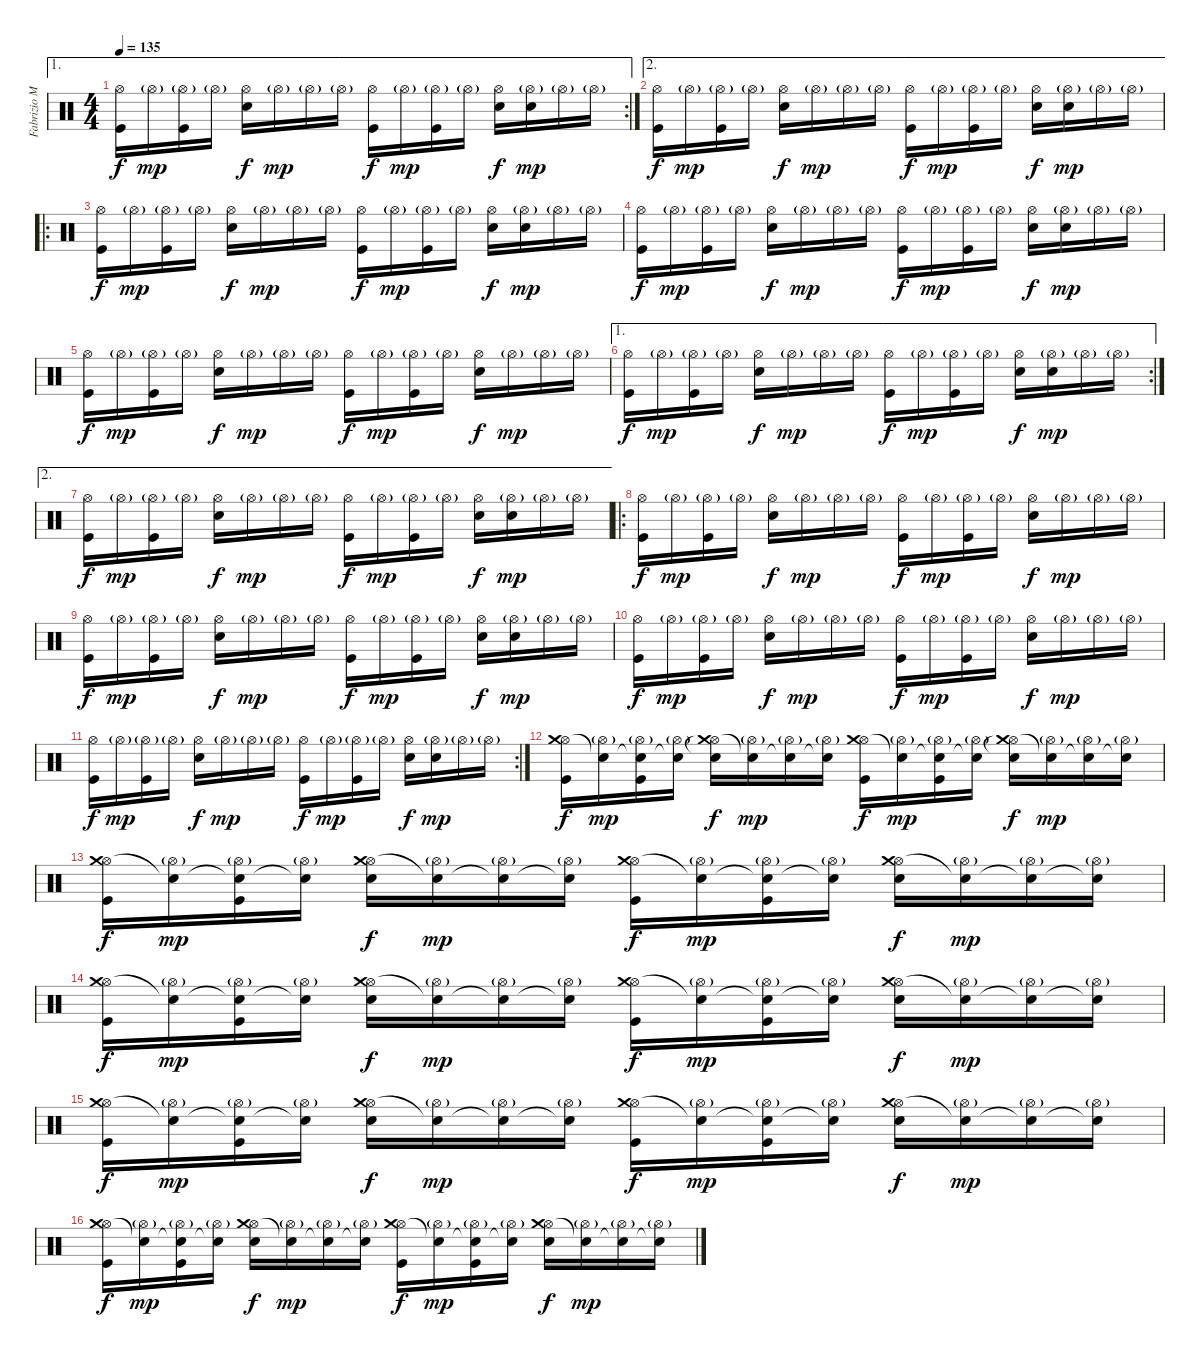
\track ("Fabrizio Moretti" "Fabrizio M") {instrument percussion}
\staff {score}
\articulation defaults
\ae 1
\rc 2
\ts (4 4)
\tempo 135
\clef neutral
\ks c
("Hi-Hat (open)" "Kick (hit)").16{dy f} "Hi-Hat (open)"{g}.16{dy mp} ("Hi-Hat (open)"{g} "Kick (hit)").16 "Hi-Hat (open)"{g}.16 ("Hi-Hat (open)" "Electric Snare (hit)").16{dy f} "Hi-Hat (open)"{g}.16{dy mp} "Hi-Hat (open)"{g}.16 "Hi-Hat (open)"{g}.16 ("Hi-Hat (open)" "Kick (hit)").16{dy f} "Hi-Hat (open)"{g}.16{dy mp} ("Hi-Hat (open)"{g} "Kick (hit)").16 "Hi-Hat (open)"{g}.16 ("Hi-Hat (open)" "Electric Snare (hit)").16{dy f} ("Hi-Hat (open)"{g} "Electric Snare (hit)").16{dy mp} "Hi-Hat (open)"{g}.16 "Hi-Hat (open)"{g}.16 |
\ae 2
("Hi-Hat (open)" "Kick (hit)").16{dy f} "Hi-Hat (open)"{g}.16{dy mp} ("Hi-Hat (open)"{g} "Kick (hit)").16 "Hi-Hat (open)"{g}.16 ("Hi-Hat (open)" "Electric Snare (hit)").16{dy f} "Hi-Hat (open)"{g}.16{dy mp} "Hi-Hat (open)"{g}.16 "Hi-Hat (open)"{g}.16 ("Hi-Hat (open)" "Kick (hit)").16{dy f} "Hi-Hat (open)"{g}.16{dy mp} ("Hi-Hat (open)"{g} "Kick (hit)").16 "Hi-Hat (open)"{g}.16 ("Hi-Hat (open)" "Electric Snare (hit)").16{dy f} ("Hi-Hat (open)"{g} "Electric Snare (hit)").16{dy mp} "Hi-Hat (open)"{g}.16 "Hi-Hat (open)"{g}.16 |
\ro
("Hi-Hat (open)" "Kick (hit)").16{dy f} "Hi-Hat (open)"{g}.16{dy mp} ("Hi-Hat (open)"{g} "Kick (hit)").16 "Hi-Hat (open)"{g}.16 ("Hi-Hat (open)" "Electric Snare (hit)").16{dy f} "Hi-Hat (open)"{g}.16{dy mp} "Hi-Hat (open)"{g}.16 "Hi-Hat (open)"{g}.16 ("Hi-Hat (open)" "Kick (hit)").16{dy f} "Hi-Hat (open)"{g}.16{dy mp} ("Hi-Hat (open)"{g} "Kick (hit)").16 "Hi-Hat (open)"{g}.16 ("Hi-Hat (open)" "Electric Snare (hit)").16{dy f} ("Hi-Hat (open)"{g} "Electric Snare (hit)").16{dy mp} "Hi-Hat (open)"{g}.16 "Hi-Hat (open)"{g}.16 |
("Hi-Hat (open)" "Kick (hit)").16{dy f} "Hi-Hat (open)"{g}.16{dy mp} ("Hi-Hat (open)"{g} "Kick (hit)").16 "Hi-Hat (open)"{g}.16 ("Hi-Hat (open)" "Electric Snare (hit)").16{dy f} "Hi-Hat (open)"{g}.16{dy mp} "Hi-Hat (open)"{g}.16 "Hi-Hat (open)"{g}.16 ("Hi-Hat (open)" "Kick (hit)").16{dy f} "Hi-Hat (open)"{g}.16{dy mp} ("Hi-Hat (open)"{g} "Kick (hit)").16 "Hi-Hat (open)"{g}.16 ("Hi-Hat (open)" "Electric Snare (hit)").16{dy f} ("Hi-Hat (open)"{g} "Electric Snare (hit)").16{dy mp} "Hi-Hat (open)"{g}.16 "Hi-Hat (open)"{g}.16 |
("Hi-Hat (open)" "Kick (hit)").16{dy f} "Hi-Hat (open)"{g}.16{dy mp} ("Hi-Hat (open)"{g} "Kick (hit)").16 "Hi-Hat (open)"{g}.16 ("Hi-Hat (open)" "Electric Snare (hit)").16{dy f} "Hi-Hat (open)"{g}.16{dy mp} "Hi-Hat (open)"{g}.16 "Hi-Hat (open)"{g}.16 ("Hi-Hat (open)" "Kick (hit)").16{dy f} "Hi-Hat (open)"{g}.16{dy mp} ("Hi-Hat (open)"{g} "Kick (hit)").16 "Hi-Hat (open)"{g}.16 ("Hi-Hat (open)" "Electric Snare (hit)").16{dy f} "Hi-Hat (open)"{g}.16{dy mp} "Hi-Hat (open)"{g}.16 "Hi-Hat (open)"{g}.16 |
\ae 1
\rc 2
("Hi-Hat (open)" "Kick (hit)").16{dy f} "Hi-Hat (open)"{g}.16{dy mp} ("Hi-Hat (open)"{g} "Kick (hit)").16 "Hi-Hat (open)"{g}.16 ("Hi-Hat (open)" "Electric Snare (hit)").16{dy f} "Hi-Hat (open)"{g}.16{dy mp} "Hi-Hat (open)"{g}.16 "Hi-Hat (open)"{g}.16 ("Hi-Hat (open)" "Kick (hit)").16{dy f} "Hi-Hat (open)"{g}.16{dy mp} ("Hi-Hat (open)"{g} "Kick (hit)").16 "Hi-Hat (open)"{g}.16 ("Hi-Hat (open)" "Electric Snare (hit)").16{dy f} ("Hi-Hat (open)"{g} "Electric Snare (hit)").16{dy mp} "Hi-Hat (open)"{g}.16 "Hi-Hat (open)"{g}.16 |
\ae 2
("Hi-Hat (open)" "Kick (hit)").16{dy f} "Hi-Hat (open)"{g}.16{dy mp} ("Hi-Hat (open)"{g} "Kick (hit)").16 "Hi-Hat (open)"{g}.16 ("Hi-Hat (open)" "Electric Snare (hit)").16{dy f} "Hi-Hat (open)"{g}.16{dy mp} "Hi-Hat (open)"{g}.16 "Hi-Hat (open)"{g}.16 ("Hi-Hat (open)" "Kick (hit)").16{dy f} "Hi-Hat (open)"{g}.16{dy mp} ("Hi-Hat (open)"{g} "Kick (hit)").16 "Hi-Hat (open)"{g}.16 ("Hi-Hat (open)" "Electric Snare (hit)").16{dy f} ("Hi-Hat (open)"{g} "Electric Snare (hit)").16{dy mp} "Hi-Hat (open)"{g}.16 "Hi-Hat (open)"{g}.16 |
\ro
("Hi-Hat (open)" "Kick (hit)").16{dy f} "Hi-Hat (open)"{g}.16{dy mp} ("Hi-Hat (open)"{g} "Kick (hit)").16 "Hi-Hat (open)"{g}.16 ("Hi-Hat (open)" "Electric Snare (hit)").16{dy f} "Hi-Hat (open)"{g}.16{dy mp} "Hi-Hat (open)"{g}.16 "Hi-Hat (open)"{g}.16 ("Hi-Hat (open)" "Kick (hit)").16{dy f} "Hi-Hat (open)"{g}.16{dy mp} ("Hi-Hat (open)"{g} "Kick (hit)").16 "Hi-Hat (open)"{g}.16 ("Hi-Hat (open)" "Electric Snare (hit)").16{dy f} "Hi-Hat (open)"{g}.16{dy mp} "Hi-Hat (open)"{g}.16 "Hi-Hat (open)"{g}.16 |
("Hi-Hat (open)" "Kick (hit)").16{dy f} "Hi-Hat (open)"{g}.16{dy mp} ("Hi-Hat (open)"{g} "Kick (hit)").16 "Hi-Hat (open)"{g}.16 ("Hi-Hat (open)" "Electric Snare (hit)").16{dy f} "Hi-Hat (open)"{g}.16{dy mp} "Hi-Hat (open)"{g}.16 "Hi-Hat (open)"{g}.16 ("Hi-Hat (open)" "Kick (hit)").16{dy f} "Hi-Hat (open)"{g}.16{dy mp} ("Hi-Hat (open)"{g} "Kick (hit)").16 "Hi-Hat (open)"{g}.16 ("Hi-Hat (open)" "Electric Snare (hit)").16{dy f} ("Hi-Hat (open)"{g} "Electric Snare (hit)").16{dy mp} "Hi-Hat (open)"{g}.16 "Hi-Hat (open)"{g}.16 |
("Hi-Hat (open)" "Kick (hit)").16{dy f} "Hi-Hat (open)"{g}.16{dy mp} ("Hi-Hat (open)"{g} "Kick (hit)").16 "Hi-Hat (open)"{g}.16 ("Hi-Hat (open)" "Electric Snare (hit)").16{dy f} "Hi-Hat (open)"{g}.16{dy mp} "Hi-Hat (open)"{g}.16 "Hi-Hat (open)"{g}.16 ("Hi-Hat (open)" "Kick (hit)").16{dy f} "Hi-Hat (open)"{g}.16{dy mp} ("Hi-Hat (open)"{g} "Kick (hit)").16 "Hi-Hat (open)"{g}.16 ("Hi-Hat (open)" "Electric Snare (hit)").16{dy f} "Hi-Hat (open)"{g}.16{dy mp} "Hi-Hat (open)"{g}.16 "Hi-Hat (open)"{g}.16 |
\rc 2
("Hi-Hat (open)" "Kick (hit)").16{dy f} "Hi-Hat (open)"{g}.16{dy mp} ("Hi-Hat (open)"{g} "Kick (hit)").16 "Hi-Hat (open)"{g}.16 ("Hi-Hat (open)" "Electric Snare (hit)").16{dy f} "Hi-Hat (open)"{g}.16{dy mp} "Hi-Hat (open)"{g}.16 "Hi-Hat (open)"{g}.16 ("Hi-Hat (open)" "Kick (hit)").16{dy f} "Hi-Hat (open)"{g}.16{dy mp} ("Hi-Hat (open)"{g} "Kick (hit)").16 "Hi-Hat (open)"{g}.16 ("Hi-Hat (open)" "Electric Snare (hit)").16{dy f} ("Hi-Hat (open)"{g} "Electric Snare (hit)").16{dy mp} "Hi-Hat (open)"{g}.16 "Hi-Hat (open)"{g}.16 |
("Hi-Hat (open)" "Crash medium (hit)" "Kick (hit)").16{dy f} ("Hi-Hat (open)"{g} "Snare (hit)"{t}).16{dy mp} ("Hi-Hat (open)"{g} "Snare (hit)"{t} "Kick (hit)").16 ("Hi-Hat (open)"{g} "Snare (hit)"{t}).16 ("Hi-Hat (open)" "Crash medium (hit)"{t} "Electric Snare (hit)").16{dy f} ("Hi-Hat (open)"{g} "Snare (hit)"{t}).16{dy mp} ("Hi-Hat (open)"{g} "Snare (hit)"{t}).16 ("Hi-Hat (open)"{g} "Snare (hit)"{t}).16 ("Hi-Hat (open)" "Crash medium (hit)" "Kick (hit)").16{dy f} ("Hi-Hat (open)"{g} "Snare (hit)"{t}).16{dy mp} ("Hi-Hat (open)"{g} "Snare (hit)"{t} "Kick (hit)").16 ("Hi-Hat (open)"{g} "Snare (hit)"{t}).16 ("Hi-Hat (open)" "Crash medium (hit)"{t} "Electric Snare (hit)").16{dy f} ("Hi-Hat (open)"{g} "Snare (hit)"{t}).16{dy mp} ("Hi-Hat (open)"{g} "Snare (hit)"{t}).16 ("Hi-Hat (open)"{g} "Snare (hit)"{t}).16 |
("Hi-Hat (open)" "Crash medium (hit)" "Kick (hit)").16{dy f} ("Hi-Hat (open)"{g} "Snare (hit)"{t}).16{dy mp} ("Hi-Hat (open)"{g} "Snare (hit)"{t} "Kick (hit)").16 ("Hi-Hat (open)"{g} "Snare (hit)"{t}).16 ("Hi-Hat (open)" "Crash medium (hit)" "Electric Snare (hit)").16{dy f} ("Hi-Hat (open)"{g} "Snare (hit)"{t}).16{dy mp} ("Hi-Hat (open)"{g} "Snare (hit)"{t}).16 ("Hi-Hat (open)"{g} "Snare (hit)"{t}).16 ("Hi-Hat (open)" "Crash medium (hit)" "Kick (hit)").16{dy f} ("Hi-Hat (open)"{g} "Snare (hit)"{t}).16{dy mp} ("Hi-Hat (open)"{g} "Snare (hit)"{t} "Kick (hit)").16 ("Hi-Hat (open)"{g} "Snare (hit)"{t}).16 ("Hi-Hat (open)" "Crash medium (hit)" "Electric Snare (hit)").16{dy f} ("Hi-Hat (open)"{g} "Snare (hit)"{t}).16{dy mp} ("Hi-Hat (open)"{g} "Snare (hit)"{t}).16 ("Hi-Hat (open)"{g} "Snare (hit)"{t}).16 |
("Hi-Hat (open)" "Crash medium (hit)" "Kick (hit)").16{dy f} ("Hi-Hat (open)"{g} "Snare (hit)"{t}).16{dy mp} ("Hi-Hat (open)"{g} "Snare (hit)"{t} "Kick (hit)").16 ("Hi-Hat (open)"{g} "Snare (hit)"{t}).16 ("Hi-Hat (open)" "Crash medium (hit)" "Electric Snare (hit)").16{dy f} ("Hi-Hat (open)"{g} "Snare (hit)"{t}).16{dy mp} ("Hi-Hat (open)"{g} "Snare (hit)"{t}).16 ("Hi-Hat (open)"{g} "Snare (hit)"{t}).16 ("Hi-Hat (open)" "Crash medium (hit)" "Kick (hit)").16{dy f} ("Hi-Hat (open)"{g} "Snare (hit)"{t}).16{dy mp} ("Hi-Hat (open)"{g} "Snare (hit)"{t} "Kick (hit)").16 ("Hi-Hat (open)"{g} "Snare (hit)"{t}).16 ("Hi-Hat (open)" "Crash medium (hit)" "Electric Snare (hit)").16{dy f} ("Hi-Hat (open)"{g} "Snare (hit)"{t}).16{dy mp} ("Hi-Hat (open)"{g} "Snare (hit)"{t}).16 ("Hi-Hat (open)"{g} "Snare (hit)"{t}).16 |
("Hi-Hat (open)" "Crash medium (hit)" "Kick (hit)").16{dy f} ("Hi-Hat (open)"{g} "Snare (hit)"{t}).16{dy mp} ("Hi-Hat (open)"{g} "Snare (hit)"{t} "Kick (hit)").16 ("Hi-Hat (open)"{g} "Snare (hit)"{t}).16 ("Hi-Hat (open)" "Crash medium (hit)" "Electric Snare (hit)").16{dy f} ("Hi-Hat (open)"{g} "Snare (hit)"{t}).16{dy mp} ("Hi-Hat (open)"{g} "Snare (hit)"{t}).16 ("Hi-Hat (open)"{g} "Snare (hit)"{t}).16 ("Hi-Hat (open)" "Crash medium (hit)" "Kick (hit)").16{dy f} ("Hi-Hat (open)"{g} "Snare (hit)"{t}).16{dy mp} ("Hi-Hat (open)"{g} "Snare (hit)"{t} "Kick (hit)").16 ("Hi-Hat (open)"{g} "Snare (hit)"{t}).16 ("Hi-Hat (open)" "Crash medium (hit)" "Electric Snare (hit)").16{dy f} ("Hi-Hat (open)"{g} "Snare (hit)"{t}).16{dy mp} ("Hi-Hat (open)"{g} "Snare (hit)"{t}).16 ("Hi-Hat (open)"{g} "Snare (hit)"{t}).16 |
("Hi-Hat (open)" "Crash medium (hit)" "Kick (hit)").16{dy f} ("Hi-Hat (open)"{g} "Snare (hit)"{t}).16{dy mp} ("Hi-Hat (open)"{g} "Snare (hit)"{t} "Kick (hit)").16 ("Hi-Hat (open)"{g} "Snare (hit)"{t}).16 ("Hi-Hat (open)" "Crash medium (hit)" "Electric Snare (hit)").16{dy f} ("Hi-Hat (open)"{g} "Snare (hit)"{t}).16{dy mp} ("Hi-Hat (open)"{g} "Snare (hit)"{t}).16 ("Hi-Hat (open)"{g} "Snare (hit)"{t}).16 ("Hi-Hat (open)" "Crash medium (hit)" "Kick (hit)").16{dy f} ("Hi-Hat (open)"{g} "Snare (hit)"{t}).16{dy mp} ("Hi-Hat (open)"{g} "Snare (hit)"{t} "Kick (hit)").16 ("Hi-Hat (open)"{g} "Snare (hit)"{t}).16 ("Hi-Hat (open)" "Crash medium (hit)" "Electric Snare (hit)").16{dy f} ("Hi-Hat (open)"{g} "Snare (hit)"{t}).16{dy mp} ("Hi-Hat (open)"{g} "Snare (hit)"{t}).16 ("Hi-Hat (open)"{g} "Snare (hit)"{t}).16
